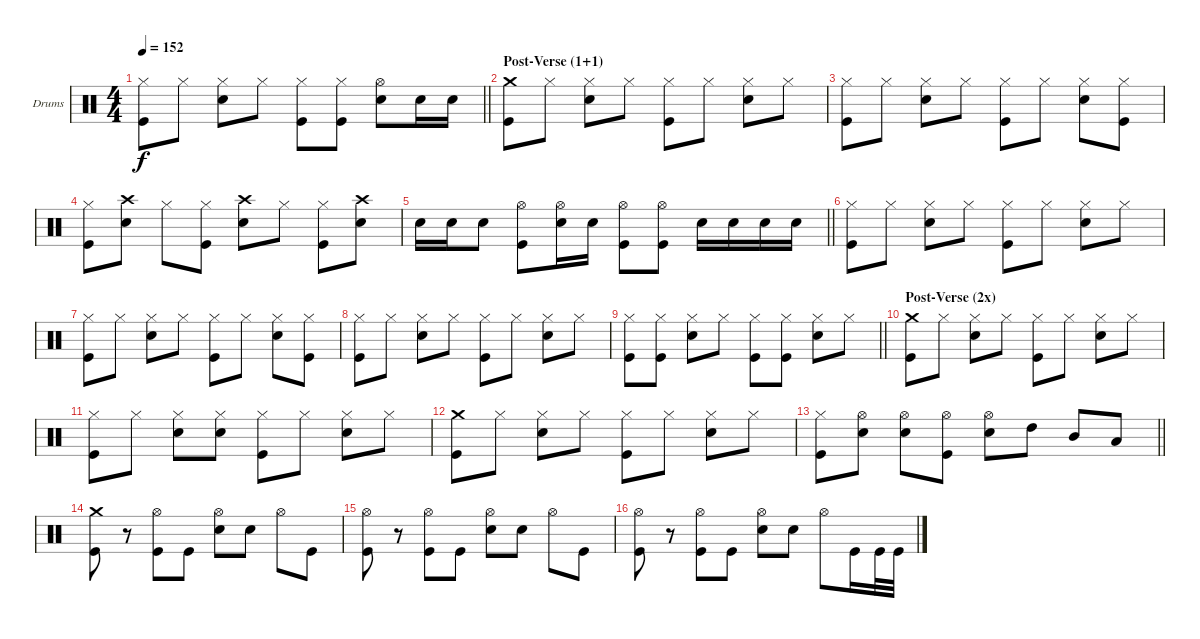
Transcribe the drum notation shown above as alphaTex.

\bracketExtendMode groupsimilarinstruments
\firstSystemTrackNameOrientation horizontal
\otherSystemsTrackNameOrientation horizontal
\track ("Drumkit" "Drums") {instrument percussion}
\staff {score}
\articulation defaults
\ts (4 4)
\tempo 152
\clef neutral
\barLineRight lightlight
\ks c
("Hi-Hat (closed)" "Kick (hit)").8{dy f} "Hi-Hat (closed)".8 ("Hi-Hat (closed)" "Snare (hit) 2").8 "Hi-Hat (closed)".8 ("Hi-Hat (closed)" "Kick (hit)").8 ("Hi-Hat (closed)" "Kick (hit)").8 ("Hi-Hat (open)" "Snare (hit) 2").8 "Snare (hit) 2".16 "Snare (hit) 2".16 |
\section ("" "Post-Verse (1+1)")
("Crash medium (hit)" "Kick (hit)").8 "Hi-Hat (closed)".8 ("Hi-Hat (closed)" "Snare (hit) 2").8 "Hi-Hat (closed)".8 ("Hi-Hat (closed)" "Kick (hit)").8 "Hi-Hat (closed)".8 ("Hi-Hat (closed)" "Snare (hit) 2").8 "Hi-Hat (closed)".8 |
("Hi-Hat (closed)" "Kick (hit)").8 "Hi-Hat (closed)".8 ("Hi-Hat (closed)" "Snare (hit) 2").8 "Hi-Hat (closed)".8 ("Hi-Hat (closed)" "Kick (hit)").8 "Hi-Hat (closed)".8 ("Hi-Hat (closed)" "Snare (hit) 2").8 ("Hi-Hat (closed)" "Kick (hit)").8 |
("Hi-Hat (closed)" "Kick (hit)").8 ("Crash high (hit)" "Snare (hit) 2").8 "Hi-Hat (closed)".8 ("Hi-Hat (closed)" "Kick (hit)").8 ("Crash high (hit)" "Snare (hit) 2").8 "Hi-Hat (closed)".8 ("Hi-Hat (closed)" "Kick (hit)").8 ("Crash high (hit)" "Snare (hit) 2").8 |
\barLineRight lightlight "Snare (hit) 2".16 "Snare (hit) 2".16 "Snare (hit) 2".8
("Hi-Hat (open)" "Kick (hit)").8 ("Hi-Hat (open)" "Snare (hit) 2").16 "Snare (hit) 2".16 ("Hi-Hat (open)" "Kick (hit)").8 ("Hi-Hat (open)" "Kick (hit)").8 "Snare (hit) 2".16 "Snare (hit) 2".16 "Snare (hit) 2".16 "Snare (hit) 2".16 |
("Hi-Hat (closed)" "Kick (hit)").8 "Hi-Hat (closed)".8 ("Hi-Hat (closed)" "Snare (hit) 2").8 "Hi-Hat (closed)".8 ("Hi-Hat (closed)" "Kick (hit)").8 "Hi-Hat (closed)".8 ("Hi-Hat (closed)" "Snare (hit) 2").8 "Hi-Hat (closed)".8 |
("Hi-Hat (closed)" "Kick (hit)").8 "Hi-Hat (closed)".8 ("Hi-Hat (closed)" "Snare (hit) 2").8 "Hi-Hat (closed)".8 ("Hi-Hat (closed)" "Kick (hit)").8 "Hi-Hat (closed)".8 ("Hi-Hat (closed)" "Snare (hit) 2").8 ("Hi-Hat (closed)" "Kick (hit)").8 |
("Hi-Hat (closed)" "Kick (hit)").8 "Hi-Hat (closed)".8 ("Hi-Hat (closed)" "Snare (hit) 2").8 "Hi-Hat (closed)".8 ("Hi-Hat (closed)" "Kick (hit)").8 "Hi-Hat (closed)".8 ("Hi-Hat (closed)" "Snare (hit) 2").8 "Hi-Hat (closed)".8 |
\barLineRight lightlight
("Hi-Hat (closed)" "Kick (hit)").8 ("Hi-Hat (closed)" "Kick (hit)").8 ("Hi-Hat (closed)" "Snare (hit) 2").8 "Hi-Hat (closed)".8 ("Hi-Hat (closed)" "Kick (hit)").8 ("Hi-Hat (closed)" "Kick (hit)").8 ("Hi-Hat (closed)" "Snare (hit) 2").8 "Hi-Hat (closed)".8 |
\section ("" "Post-Verse (2x)")
("Crash medium (hit)" "Kick (hit)").8 "Hi-Hat (closed)".8 ("Hi-Hat (closed)" "Snare (hit) 2").8 "Hi-Hat (closed)".8 ("Hi-Hat (closed)" "Kick (hit)").8 "Hi-Hat (closed)".8 ("Hi-Hat (closed)" "Snare (hit) 2").8 "Hi-Hat (closed)".8 |
("Hi-Hat (closed)" "Kick (hit)").8 "Hi-Hat (closed)".8 ("Hi-Hat (closed)" "Snare (hit) 2").8 ("Hi-Hat (closed)" "Snare (hit) 2").8 ("Hi-Hat (closed)" "Kick (hit)").8 "Hi-Hat (closed)".8 ("Hi-Hat (closed)" "Snare (hit) 2").8 "Hi-Hat (closed)".8 |
("Crash medium (hit)" "Kick (hit)").8 "Hi-Hat (closed)".8 ("Hi-Hat (closed)" "Snare (hit) 2").8 "Hi-Hat (closed)".8 ("Hi-Hat (closed)" "Kick (hit)").8 "Hi-Hat (closed)".8 ("Hi-Hat (closed)" "Snare (hit) 2").8 "Hi-Hat (closed)".8 |
\barLineRight lightlight
("Hi-Hat (closed)" "Kick (hit)").8 ("Hi-Hat (open)" "Snare (hit) 2").8 ("Hi-Hat (open)" "Snare (hit) 2").8 ("Hi-Hat (open)" "Kick (hit)").8 ("Hi-Hat (open)" "Snare (hit) 2").8 "High Tom (hit)".8 "Mid Tom (hit)".8 "Low Tom (hit)".8 |
("Crash medium (hit)" "Kick (hit)").8 r.8 ("Hi-Hat (open)" "Kick (hit)").8 "Kick (hit)".8 ("Hi-Hat (open)" "Snare (hit) 2").8 "Snare (hit) 2".8 "Hi-Hat (open)".8 "Kick (hit)".8 |
("Hi-Hat (open)" "Kick (hit)").8 r.8 ("Hi-Hat (open)" "Kick (hit)").8 "Kick (hit)".8 ("Hi-Hat (open)" "Snare (hit) 2").8 "Snare (hit) 2".8 "Hi-Hat (open)".8 "Kick (hit)".8 |
("Hi-Hat (open)" "Kick (hit)").8 r.8 ("Hi-Hat (open)" "Kick (hit)").8 "Kick (hit)".8 ("Hi-Hat (open)" "Snare (hit) 2").8 "Snare (hit) 2".8 "Hi-Hat (open)".8 "Kick (hit)".16 "Kick (hit)".32 "Kick (hit)".32
